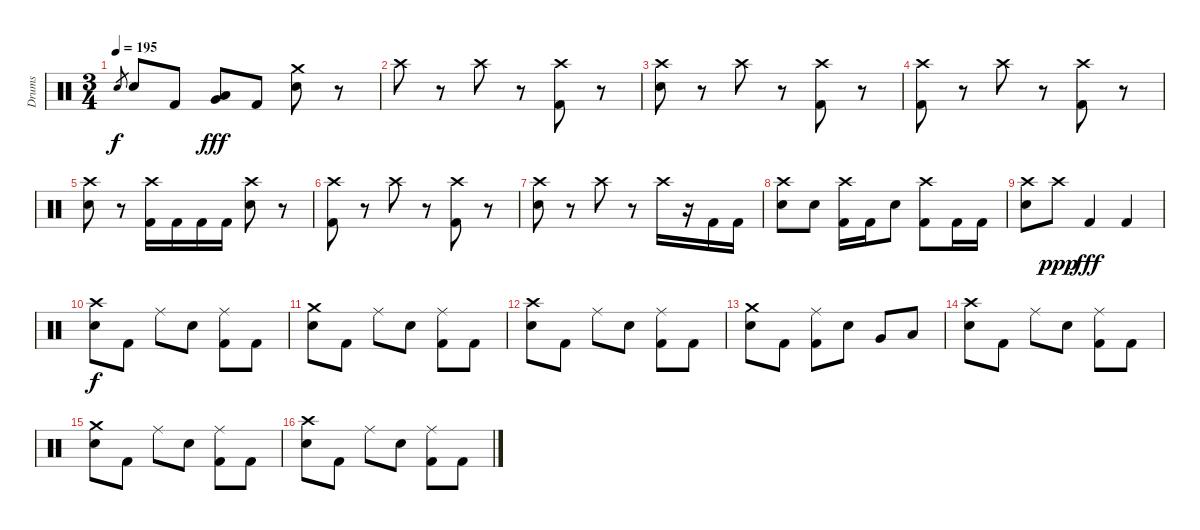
\track ("Drums" "Drums") {instrument percussion}
\staff {score}
\articulation defaults
\ts (3 4)
\tempo 195
\clef neutral
\ks c "Electric Snare (hit)".8{gr dy f} "Electric Snare (hit)".8 "Kick (hit) 2".8
("Very Low Tom (hit)" "Low Floor Tom (hit)").8{dy fff} "Kick (hit) 2".8 ("Crash medium (hit)" "Electric Snare (hit)").8 r.8 |
"Crash high (hit)".8 r.8 "Crash high (hit)".8 r.8 ("Crash high (hit)" "Kick (hit) 2").8 r.8 |
("Crash high (hit)" "Electric Snare (hit)").8 r.8 "Crash high (hit)".8 r.8 ("Crash high (hit)" "Kick (hit) 2").8 r.8 |
("Crash high (hit)" "Kick (hit) 2").8 r.8 "Crash high (hit)".8 r.8 ("Crash high (hit)" "Kick (hit) 2").8 r.8 |
("Crash high (hit)" "Electric Snare (hit)").8 r.8 ("Crash high (hit)" "Kick (hit) 2").16 "Kick (hit) 2".16 "Kick (hit) 2".16 "Kick (hit) 2".16 ("Crash high (hit)" "Electric Snare (hit)").8 r.8 |
("Crash high (hit)" "Kick (hit) 2").8 r.8 "Crash high (hit)".8 r.8 ("Crash high (hit)" "Kick (hit) 2").8 r.8 |
("Crash high (hit)" "Electric Snare (hit)").8 r.8 "Crash high (hit)".8 r.8 "Crash high (hit)".16 r.16 "Kick (hit) 2".16 "Kick (hit) 2".16 |
("Crash high (hit)" "Electric Snare (hit)").8 "Electric Snare (hit)".8 ("Crash high (hit)" "Kick (hit) 2").16 "Kick (hit) 2".16 "Electric Snare (hit)".8 ("Crash high (hit)" "Kick (hit) 2").8 "Kick (hit) 2".16 "Kick (hit) 2".16 |
("Crash high (hit)" "Electric Snare (hit)").8 "Crash high (hit)".8{dy ppp} "Kick (hit) 2".4{dy fff} "Kick (hit) 2".4 |
("Crash high (hit)" "Electric Snare (hit)").8{dy f} "Kick (hit) 2".8 "Ride (middle)".8 "Electric Snare (hit)".8 ("Ride (middle)" "Kick (hit) 2").8 "Kick (hit) 2".8 |
("Crash medium (hit)" "Electric Snare (hit)").8 "Kick (hit) 2".8 "Ride (middle)".8 "Electric Snare (hit)".8 ("Ride (middle)" "Kick (hit) 2").8 "Kick (hit) 2".8 |
("Crash high (hit)" "Electric Snare (hit)").8 "Kick (hit) 2".8 "Ride (middle)".8 "Electric Snare (hit)".8 ("Ride (middle)" "Kick (hit) 2").8 "Kick (hit) 2".8 |
("Crash medium (hit)" "Electric Snare (hit)").8 "Kick (hit) 2".8 ("Ride (middle)" "Kick (hit) 2").8 "Electric Snare (hit)".8 "Very Low Tom (hit)".8 "Low Floor Tom (hit)".8 |
("Crash high (hit)" "Electric Snare (hit)").8 "Kick (hit) 2".8 "Ride (middle)".8 "Electric Snare (hit)".8 ("Ride (middle)" "Kick (hit) 2").8 "Kick (hit) 2".8 |
("Crash medium (hit)" "Electric Snare (hit)").8 "Kick (hit) 2".8 "Ride (middle)".8 "Electric Snare (hit)".8 ("Ride (middle)" "Kick (hit) 2").8 "Kick (hit) 2".8 |
("Crash high (hit)" "Electric Snare (hit)").8 "Kick (hit) 2".8 "Ride (middle)".8 "Electric Snare (hit)".8 ("Ride (middle)" "Kick (hit) 2").8 "Kick (hit) 2".8
